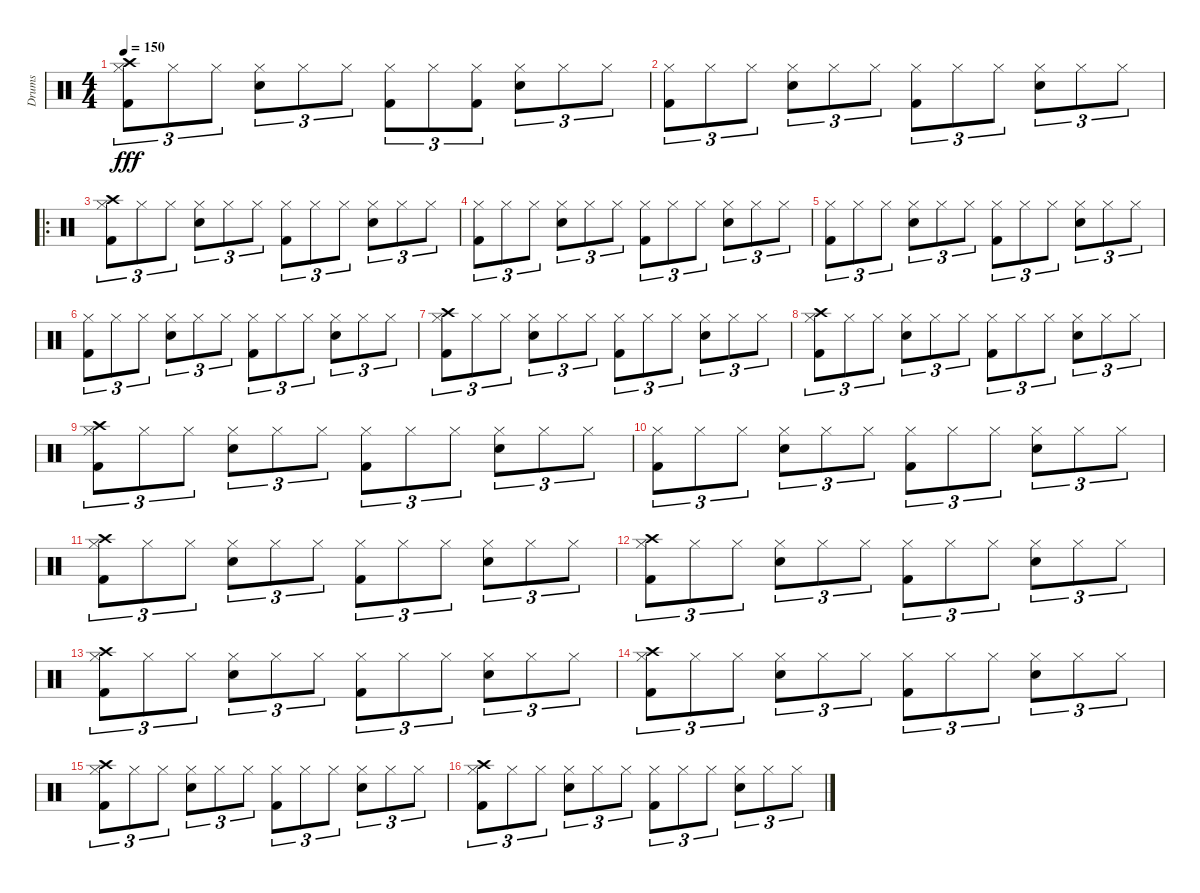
\track ("Drums" "Drums") {instrument percussion}
\staff {score}
\articulation defaults
\ts (4 4)
\tempo 150
\clef neutral
\ks c
("Hi-Hat (closed)" "Kick (hit) 2" "Crash high (hit)").8{tu (3 2) dy fff} "Hi-Hat (closed)".8{tu (3 2)} "Hi-Hat (closed)".8{tu (3 2)} ("Hi-Hat (closed)" "Snare (hit) 2").8{tu (3 2)} "Hi-Hat (closed)".8{tu (3 2)} "Hi-Hat (closed)".8{tu (3 2)} ("Hi-Hat (closed)" "Kick (hit) 2").8{tu (3 2)} "Hi-Hat (closed)".8{tu (3 2)} ("Hi-Hat (closed)" "Kick (hit) 2").8{tu (3 2)} ("Hi-Hat (closed)" "Snare (hit) 2").8{tu (3 2)} "Hi-Hat (closed)".8{tu (3 2)} "Hi-Hat (closed)".8{tu (3 2)} |
("Hi-Hat (closed)" "Kick (hit) 2").8{tu (3 2)} "Hi-Hat (closed)".8{tu (3 2)} "Hi-Hat (closed)".8{tu (3 2)} ("Hi-Hat (closed)" "Snare (hit) 2").8{tu (3 2)} "Hi-Hat (closed)".8{tu (3 2)} "Hi-Hat (closed)".8{tu (3 2)} ("Hi-Hat (closed)" "Kick (hit) 2").8{tu (3 2)} "Hi-Hat (closed)".8{tu (3 2)} "Hi-Hat (closed)".8{tu (3 2)} ("Hi-Hat (closed)" "Snare (hit) 2").8{tu (3 2)} "Hi-Hat (closed)".8{tu (3 2)} "Hi-Hat (closed)".8{tu (3 2)} |
\ro
("Hi-Hat (closed)" "Kick (hit) 2" "Crash high (hit)").8{tu (3 2)} "Hi-Hat (closed)".8{tu (3 2)} "Hi-Hat (closed)".8{tu (3 2)} ("Hi-Hat (closed)" "Snare (hit) 2").8{tu (3 2)} "Hi-Hat (closed)".8{tu (3 2)} "Hi-Hat (closed)".8{tu (3 2)} ("Hi-Hat (closed)" "Kick (hit) 2").8{tu (3 2)} "Hi-Hat (closed)".8{tu (3 2)} "Hi-Hat (closed)".8{tu (3 2)} ("Hi-Hat (closed)" "Snare (hit) 2").8{tu (3 2)} "Hi-Hat (closed)".8{tu (3 2)} "Hi-Hat (closed)".8{tu (3 2)} |
("Hi-Hat (closed)" "Kick (hit) 2").8{tu (3 2)} "Hi-Hat (closed)".8{tu (3 2)} "Hi-Hat (closed)".8{tu (3 2)} ("Hi-Hat (closed)" "Snare (hit) 2").8{tu (3 2)} "Hi-Hat (closed)".8{tu (3 2)} "Hi-Hat (closed)".8{tu (3 2)} ("Hi-Hat (closed)" "Kick (hit) 2").8{tu (3 2)} "Hi-Hat (closed)".8{tu (3 2)} "Hi-Hat (closed)".8{tu (3 2)} ("Hi-Hat (closed)" "Snare (hit) 2").8{tu (3 2)} "Hi-Hat (closed)".8{tu (3 2)} "Hi-Hat (closed)".8{tu (3 2)} |
("Hi-Hat (closed)" "Kick (hit) 2").8{tu (3 2)} "Hi-Hat (closed)".8{tu (3 2)} "Hi-Hat (closed)".8{tu (3 2)} ("Hi-Hat (closed)" "Snare (hit) 2").8{tu (3 2)} "Hi-Hat (closed)".8{tu (3 2)} "Hi-Hat (closed)".8{tu (3 2)} ("Hi-Hat (closed)" "Kick (hit) 2").8{tu (3 2)} "Hi-Hat (closed)".8{tu (3 2)} "Hi-Hat (closed)".8{tu (3 2)} ("Hi-Hat (closed)" "Snare (hit) 2").8{tu (3 2)} "Hi-Hat (closed)".8{tu (3 2)} "Hi-Hat (closed)".8{tu (3 2)} |
("Hi-Hat (closed)" "Kick (hit) 2").8{tu (3 2)} "Hi-Hat (closed)".8{tu (3 2)} "Hi-Hat (closed)".8{tu (3 2)} ("Hi-Hat (closed)" "Snare (hit) 2").8{tu (3 2)} "Hi-Hat (closed)".8{tu (3 2)} "Hi-Hat (closed)".8{tu (3 2)} ("Hi-Hat (closed)" "Kick (hit) 2").8{tu (3 2)} "Hi-Hat (closed)".8{tu (3 2)} "Hi-Hat (closed)".8{tu (3 2)} ("Hi-Hat (closed)" "Snare (hit) 2").8{tu (3 2)} "Hi-Hat (closed)".8{tu (3 2)} "Hi-Hat (closed)".8{tu (3 2)} |
("Hi-Hat (closed)" "Kick (hit) 2" "Crash high (hit)").8{tu (3 2)} "Hi-Hat (closed)".8{tu (3 2)} "Hi-Hat (closed)".8{tu (3 2)} ("Hi-Hat (closed)" "Snare (hit) 2").8{tu (3 2)} "Hi-Hat (closed)".8{tu (3 2)} "Hi-Hat (closed)".8{tu (3 2)} ("Hi-Hat (closed)" "Kick (hit) 2").8{tu (3 2)} "Hi-Hat (closed)".8{tu (3 2)} "Hi-Hat (closed)".8{tu (3 2)} ("Hi-Hat (closed)" "Snare (hit) 2").8{tu (3 2)} "Hi-Hat (closed)".8{tu (3 2)} "Hi-Hat (closed)".8{tu (3 2)} |
("Hi-Hat (closed)" "Kick (hit) 2" "Crash high (hit)").8{tu (3 2)} "Hi-Hat (closed)".8{tu (3 2)} "Hi-Hat (closed)".8{tu (3 2)} ("Hi-Hat (closed)" "Snare (hit) 2").8{tu (3 2)} "Hi-Hat (closed)".8{tu (3 2)} "Hi-Hat (closed)".8{tu (3 2)} ("Hi-Hat (closed)" "Kick (hit) 2").8{tu (3 2)} "Hi-Hat (closed)".8{tu (3 2)} "Hi-Hat (closed)".8{tu (3 2)} ("Hi-Hat (closed)" "Snare (hit) 2").8{tu (3 2)} "Hi-Hat (closed)".8{tu (3 2)} "Hi-Hat (closed)".8{tu (3 2)} |
("Hi-Hat (closed)" "Kick (hit) 2" "Crash high (hit)").8{tu (3 2)} "Hi-Hat (closed)".8{tu (3 2)} "Hi-Hat (closed)".8{tu (3 2)} ("Hi-Hat (closed)" "Snare (hit) 2").8{tu (3 2)} "Hi-Hat (closed)".8{tu (3 2)} "Hi-Hat (closed)".8{tu (3 2)} ("Hi-Hat (closed)" "Kick (hit) 2").8{tu (3 2)} "Hi-Hat (closed)".8{tu (3 2)} "Hi-Hat (closed)".8{tu (3 2)} ("Hi-Hat (closed)" "Snare (hit) 2").8{tu (3 2)} "Hi-Hat (closed)".8{tu (3 2)} "Hi-Hat (closed)".8{tu (3 2)} |
("Hi-Hat (closed)" "Kick (hit) 2").8{tu (3 2)} "Hi-Hat (closed)".8{tu (3 2)} "Hi-Hat (closed)".8{tu (3 2)} ("Hi-Hat (closed)" "Snare (hit) 2").8{tu (3 2)} "Hi-Hat (closed)".8{tu (3 2)} "Hi-Hat (closed)".8{tu (3 2)} ("Hi-Hat (closed)" "Kick (hit) 2").8{tu (3 2)} "Hi-Hat (closed)".8{tu (3 2)} "Hi-Hat (closed)".8{tu (3 2)} ("Hi-Hat (closed)" "Snare (hit) 2").8{tu (3 2)} "Hi-Hat (closed)".8{tu (3 2)} "Hi-Hat (closed)".8{tu (3 2)} |
("Hi-Hat (closed)" "Kick (hit) 2" "Crash high (hit)").8{tu (3 2)} "Hi-Hat (closed)".8{tu (3 2)} "Hi-Hat (closed)".8{tu (3 2)} ("Hi-Hat (closed)" "Snare (hit) 2").8{tu (3 2)} "Hi-Hat (closed)".8{tu (3 2)} "Hi-Hat (closed)".8{tu (3 2)} ("Hi-Hat (closed)" "Kick (hit) 2").8{tu (3 2)} "Hi-Hat (closed)".8{tu (3 2)} "Hi-Hat (closed)".8{tu (3 2)} ("Hi-Hat (closed)" "Snare (hit) 2").8{tu (3 2)} "Hi-Hat (closed)".8{tu (3 2)} "Hi-Hat (closed)".8{tu (3 2)} |
("Hi-Hat (closed)" "Kick (hit) 2" "Crash high (hit)").8{tu (3 2)} "Hi-Hat (closed)".8{tu (3 2)} "Hi-Hat (closed)".8{tu (3 2)} ("Hi-Hat (closed)" "Snare (hit) 2").8{tu (3 2)} "Hi-Hat (closed)".8{tu (3 2)} "Hi-Hat (closed)".8{tu (3 2)} ("Hi-Hat (closed)" "Kick (hit) 2").8{tu (3 2)} "Hi-Hat (closed)".8{tu (3 2)} "Hi-Hat (closed)".8{tu (3 2)} ("Hi-Hat (closed)" "Snare (hit) 2").8{tu (3 2)} "Hi-Hat (closed)".8{tu (3 2)} "Hi-Hat (closed)".8{tu (3 2)} |
("Hi-Hat (closed)" "Kick (hit) 2" "Crash high (hit)").8{tu (3 2)} "Hi-Hat (closed)".8{tu (3 2)} "Hi-Hat (closed)".8{tu (3 2)} ("Hi-Hat (closed)" "Snare (hit) 2").8{tu (3 2)} "Hi-Hat (closed)".8{tu (3 2)} "Hi-Hat (closed)".8{tu (3 2)} ("Hi-Hat (closed)" "Kick (hit) 2").8{tu (3 2)} "Hi-Hat (closed)".8{tu (3 2)} "Hi-Hat (closed)".8{tu (3 2)} ("Hi-Hat (closed)" "Snare (hit) 2").8{tu (3 2)} "Hi-Hat (closed)".8{tu (3 2)} "Hi-Hat (closed)".8{tu (3 2)} |
("Hi-Hat (closed)" "Kick (hit) 2" "Crash high (hit)").8{tu (3 2)} "Hi-Hat (closed)".8{tu (3 2)} "Hi-Hat (closed)".8{tu (3 2)} ("Hi-Hat (closed)" "Snare (hit) 2").8{tu (3 2)} "Hi-Hat (closed)".8{tu (3 2)} "Hi-Hat (closed)".8{tu (3 2)} ("Hi-Hat (closed)" "Kick (hit) 2").8{tu (3 2)} "Hi-Hat (closed)".8{tu (3 2)} "Hi-Hat (closed)".8{tu (3 2)} ("Hi-Hat (closed)" "Snare (hit) 2").8{tu (3 2)} "Hi-Hat (closed)".8{tu (3 2)} "Hi-Hat (closed)".8{tu (3 2)} |
("Hi-Hat (closed)" "Kick (hit) 2" "Crash high (hit)").8{tu (3 2)} "Hi-Hat (closed)".8{tu (3 2)} "Hi-Hat (closed)".8{tu (3 2)} ("Hi-Hat (closed)" "Snare (hit) 2").8{tu (3 2)} "Hi-Hat (closed)".8{tu (3 2)} "Hi-Hat (closed)".8{tu (3 2)} ("Hi-Hat (closed)" "Kick (hit) 2").8{tu (3 2)} "Hi-Hat (closed)".8{tu (3 2)} "Hi-Hat (closed)".8{tu (3 2)} ("Hi-Hat (closed)" "Snare (hit) 2").8{tu (3 2)} "Hi-Hat (closed)".8{tu (3 2)} "Hi-Hat (closed)".8{tu (3 2)} |
("Hi-Hat (closed)" "Kick (hit) 2" "Crash high (hit)").8{tu (3 2)} "Hi-Hat (closed)".8{tu (3 2)} "Hi-Hat (closed)".8{tu (3 2)} ("Hi-Hat (closed)" "Snare (hit) 2").8{tu (3 2)} "Hi-Hat (closed)".8{tu (3 2)} "Hi-Hat (closed)".8{tu (3 2)} ("Hi-Hat (closed)" "Kick (hit) 2").8{tu (3 2)} "Hi-Hat (closed)".8{tu (3 2)} "Hi-Hat (closed)".8{tu (3 2)} ("Hi-Hat (closed)" "Snare (hit) 2").8{tu (3 2)} "Hi-Hat (closed)".8{tu (3 2)} "Hi-Hat (closed)".8{tu (3 2)}
